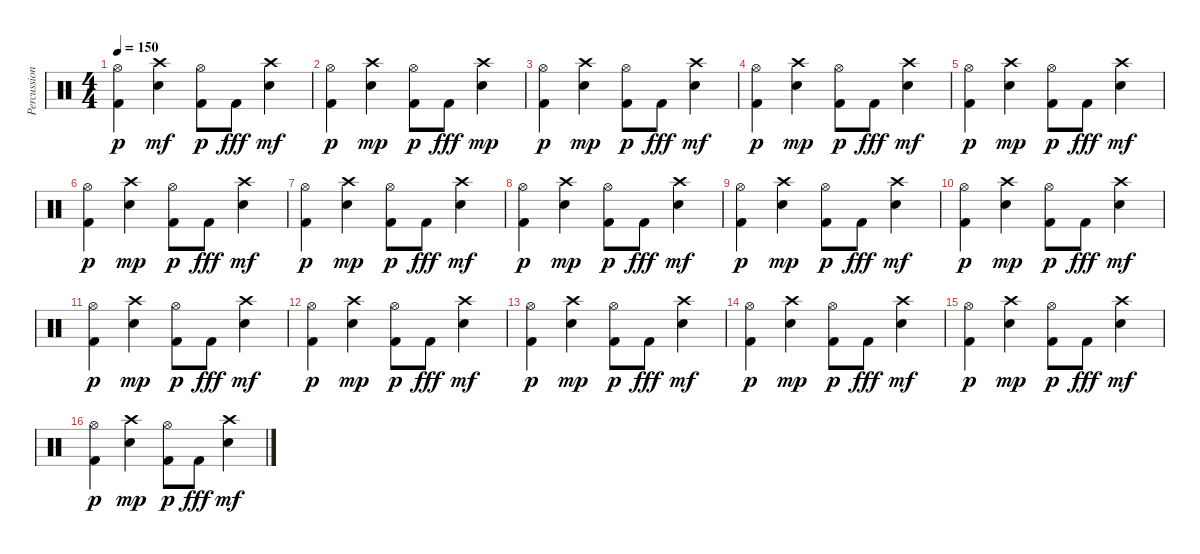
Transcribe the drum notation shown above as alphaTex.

\track ("Percussions" "Percussion") {instrument percussion}
\staff {score}
\articulation defaults
\ts (4 4)
\tempo 150
\clef neutral
\ks c
("Kick (hit) 2" "Hi-Hat (open)").4{dy p} ("Snare (hit) 2" "Crash high (hit)").4{dy mf} ("Kick (hit) 2" "Hi-Hat (open)").8{dy p} "Kick (hit) 2".8{dy fff} ("Snare (hit) 2" "Crash high (hit)").4{dy mf} |
("Kick (hit) 2" "Hi-Hat (open)").4{dy p} ("Snare (hit) 2" "Crash high (hit)").4{dy mp} ("Kick (hit) 2" "Hi-Hat (open)").8{dy p} "Kick (hit) 2".8{dy fff} ("Snare (hit) 2" "Crash high (hit)").4{dy mp} |
("Kick (hit) 2" "Hi-Hat (open)").4{dy p} ("Snare (hit) 2" "Crash high (hit)").4{dy mp} ("Kick (hit) 2" "Hi-Hat (open)").8{dy p} "Kick (hit) 2".8{dy fff} ("Snare (hit) 2" "Crash high (hit)").4{dy mf} |
("Kick (hit) 2" "Hi-Hat (open)").4{dy p} ("Snare (hit) 2" "Crash high (hit)").4{dy mp} ("Kick (hit) 2" "Hi-Hat (open)").8{dy p} "Kick (hit) 2".8{dy fff} ("Snare (hit) 2" "Crash high (hit)").4{dy mf} |
("Kick (hit) 2" "Hi-Hat (open)").4{dy p} ("Snare (hit) 2" "Crash high (hit)").4{dy mp} ("Kick (hit) 2" "Hi-Hat (open)").8{dy p} "Kick (hit) 2".8{dy fff} ("Snare (hit) 2" "Crash high (hit)").4{dy mf} |
("Kick (hit) 2" "Hi-Hat (open)").4{dy p} ("Snare (hit) 2" "Crash high (hit)").4{dy mp} ("Kick (hit) 2" "Hi-Hat (open)").8{dy p} "Kick (hit) 2".8{dy fff} ("Snare (hit) 2" "Crash high (hit)").4{dy mf} |
("Kick (hit) 2" "Hi-Hat (open)").4{dy p} ("Snare (hit) 2" "Crash high (hit)").4{dy mp} ("Kick (hit) 2" "Hi-Hat (open)").8{dy p} "Kick (hit) 2".8{dy fff} ("Snare (hit) 2" "Crash high (hit)").4{dy mf} |
("Kick (hit) 2" "Hi-Hat (open)").4{dy p} ("Snare (hit) 2" "Crash high (hit)").4{dy mp} ("Kick (hit) 2" "Hi-Hat (open)").8{dy p} "Kick (hit) 2".8{dy fff} ("Snare (hit) 2" "Crash high (hit)").4{dy mf} |
("Kick (hit) 2" "Hi-Hat (open)").4{dy p} ("Snare (hit) 2" "Crash high (hit)").4{dy mp} ("Kick (hit) 2" "Hi-Hat (open)").8{dy p} "Kick (hit) 2".8{dy fff} ("Snare (hit) 2" "Crash high (hit)").4{dy mf} |
("Kick (hit) 2" "Hi-Hat (open)").4{dy p} ("Snare (hit) 2" "Crash high (hit)").4{dy mp} ("Kick (hit) 2" "Hi-Hat (open)").8{dy p} "Kick (hit) 2".8{dy fff} ("Snare (hit) 2" "Crash high (hit)").4{dy mf} |
("Kick (hit) 2" "Hi-Hat (open)").4{dy p} ("Snare (hit) 2" "Crash high (hit)").4{dy mp} ("Kick (hit) 2" "Hi-Hat (open)").8{dy p} "Kick (hit) 2".8{dy fff} ("Snare (hit) 2" "Crash high (hit)").4{dy mf} |
("Kick (hit) 2" "Hi-Hat (open)").4{dy p} ("Snare (hit) 2" "Crash high (hit)").4{dy mp} ("Kick (hit) 2" "Hi-Hat (open)").8{dy p} "Kick (hit) 2".8{dy fff} ("Snare (hit) 2" "Crash high (hit)").4{dy mf} |
("Kick (hit) 2" "Hi-Hat (open)").4{dy p} ("Snare (hit) 2" "Crash high (hit)").4{dy mp} ("Kick (hit) 2" "Hi-Hat (open)").8{dy p} "Kick (hit) 2".8{dy fff} ("Snare (hit) 2" "Crash high (hit)").4{dy mf} |
("Kick (hit) 2" "Hi-Hat (open)").4{dy p} ("Snare (hit) 2" "Crash high (hit)").4{dy mp} ("Kick (hit) 2" "Hi-Hat (open)").8{dy p} "Kick (hit) 2".8{dy fff} ("Snare (hit) 2" "Crash high (hit)").4{dy mf} |
("Kick (hit) 2" "Hi-Hat (open)").4{dy p} ("Snare (hit) 2" "Crash high (hit)").4{dy mp} ("Kick (hit) 2" "Hi-Hat (open)").8{dy p} "Kick (hit) 2".8{dy fff} ("Snare (hit) 2" "Crash high (hit)").4{dy mf} |
("Kick (hit) 2" "Hi-Hat (open)").4{dy p} ("Snare (hit) 2" "Crash high (hit)").4{dy mp} ("Kick (hit) 2" "Hi-Hat (open)").8{dy p} "Kick (hit) 2".8{dy fff} ("Snare (hit) 2" "Crash high (hit)").4{dy mf}
